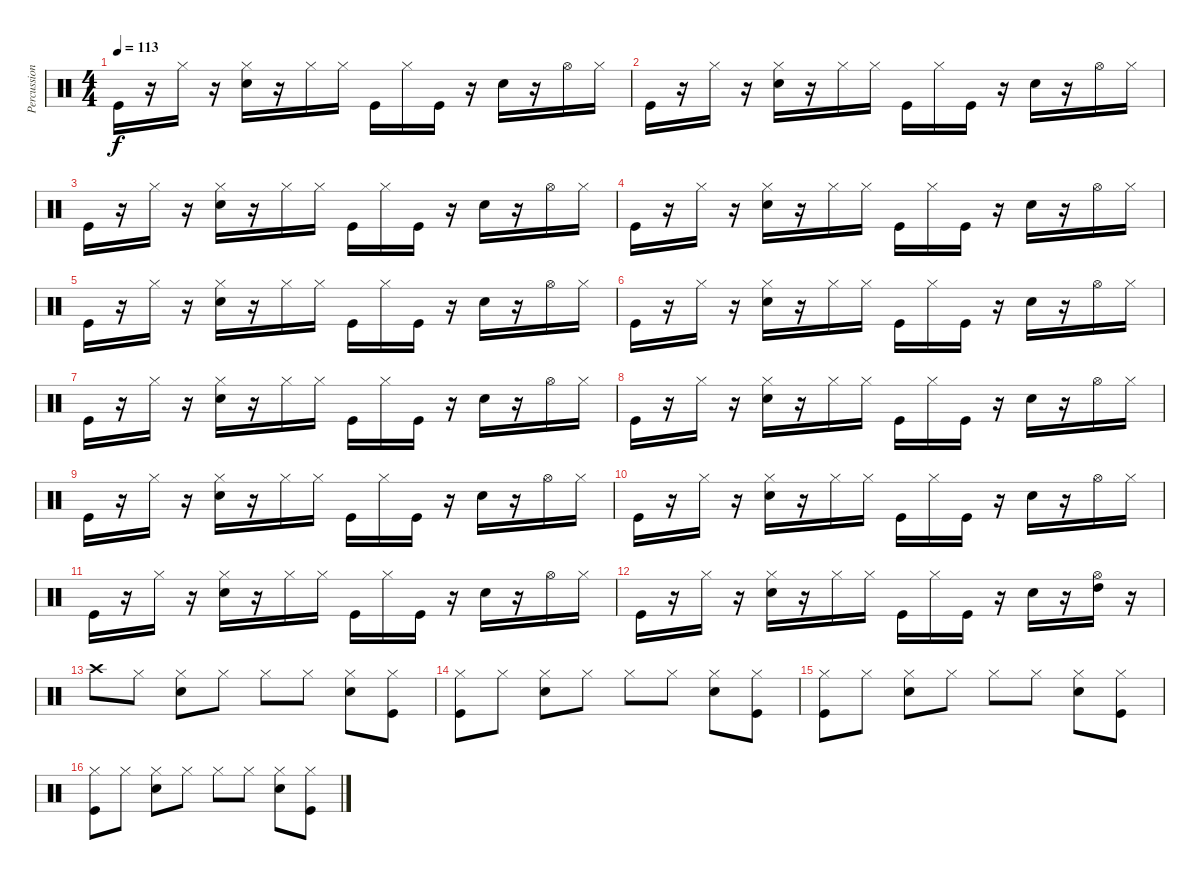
\track ("Percussioni" "Percussion") {instrument percussion}
\staff {score}
\articulation defaults
\ts (4 4)
\tempo 113
\clef neutral
\ks c "Kick (hit)".16{dy f}
r.16 "Hi-Hat (closed)".16 r.16 ("Hi-Hat (closed)" "Electric Snare (hit)").16 r.16 "Hi-Hat (closed)".16 "Hi-Hat (closed)".16 "Kick (hit)".16 "Hi-Hat (closed)".16 "Kick (hit)".16 r.16 "Electric Snare (hit)".16 r.16 "Hi-Hat (open)".16 "Hi-Hat (closed)".16 |
"Kick (hit)".16 r.16 "Hi-Hat (closed)".16 r.16 ("Hi-Hat (closed)" "Electric Snare (hit)").16 r.16 "Hi-Hat (closed)".16 "Hi-Hat (closed)".16 "Kick (hit)".16 "Hi-Hat (closed)".16 "Kick (hit)".16 r.16 "Electric Snare (hit)".16 r.16 "Hi-Hat (open)".16 "Hi-Hat (closed)".16 |
"Kick (hit)".16 r.16 "Hi-Hat (closed)".16 r.16 ("Hi-Hat (closed)" "Electric Snare (hit)").16 r.16 "Hi-Hat (closed)".16 "Hi-Hat (closed)".16 "Kick (hit)".16 "Hi-Hat (closed)".16 "Kick (hit)".16 r.16 "Electric Snare (hit)".16 r.16 "Hi-Hat (open)".16 "Hi-Hat (closed)".16 |
"Kick (hit)".16 r.16 "Hi-Hat (closed)".16 r.16 ("Hi-Hat (closed)" "Electric Snare (hit)").16 r.16 "Hi-Hat (closed)".16 "Hi-Hat (closed)".16 "Kick (hit)".16 "Hi-Hat (closed)".16 "Kick (hit)".16 r.16 "Electric Snare (hit)".16 r.16 "Hi-Hat (open)".16 "Hi-Hat (closed)".16 |
"Kick (hit)".16 r.16 "Hi-Hat (closed)".16 r.16 ("Hi-Hat (closed)" "Electric Snare (hit)").16 r.16 "Hi-Hat (closed)".16 "Hi-Hat (closed)".16 "Kick (hit)".16 "Hi-Hat (closed)".16 "Kick (hit)".16 r.16 "Electric Snare (hit)".16 r.16 "Hi-Hat (open)".16 "Hi-Hat (closed)".16 |
"Kick (hit)".16 r.16 "Hi-Hat (closed)".16 r.16 ("Hi-Hat (closed)" "Electric Snare (hit)").16 r.16 "Hi-Hat (closed)".16 "Hi-Hat (closed)".16 "Kick (hit)".16 "Hi-Hat (closed)".16 "Kick (hit)".16 r.16 "Electric Snare (hit)".16 r.16 "Hi-Hat (open)".16 "Hi-Hat (closed)".16 |
"Kick (hit)".16 r.16 "Hi-Hat (closed)".16 r.16 ("Hi-Hat (closed)" "Electric Snare (hit)").16 r.16 "Hi-Hat (closed)".16 "Hi-Hat (closed)".16 "Kick (hit)".16 "Hi-Hat (closed)".16 "Kick (hit)".16 r.16 "Electric Snare (hit)".16 r.16 "Hi-Hat (open)".16 "Hi-Hat (closed)".16 |
"Kick (hit)".16 r.16 "Hi-Hat (closed)".16 r.16 ("Hi-Hat (closed)" "Electric Snare (hit)").16 r.16 "Hi-Hat (closed)".16 "Hi-Hat (closed)".16 "Kick (hit)".16 "Hi-Hat (closed)".16 "Kick (hit)".16 r.16 "Electric Snare (hit)".16 r.16 "Hi-Hat (open)".16 "Hi-Hat (closed)".16 |
"Kick (hit)".16 r.16 "Hi-Hat (closed)".16 r.16 ("Hi-Hat (closed)" "Electric Snare (hit)").16 r.16 "Hi-Hat (closed)".16 "Hi-Hat (closed)".16 "Kick (hit)".16 "Hi-Hat (closed)".16 "Kick (hit)".16 r.16 "Electric Snare (hit)".16 r.16 "Hi-Hat (open)".16 "Hi-Hat (closed)".16 |
"Kick (hit)".16 r.16 "Hi-Hat (closed)".16 r.16 ("Hi-Hat (closed)" "Electric Snare (hit)").16 r.16 "Hi-Hat (closed)".16 "Hi-Hat (closed)".16 "Kick (hit)".16 "Hi-Hat (closed)".16 "Kick (hit)".16 r.16 "Electric Snare (hit)".16 r.16 "Hi-Hat (open)".16 "Hi-Hat (closed)".16 |
"Kick (hit)".16 r.16 "Hi-Hat (closed)".16 r.16 ("Hi-Hat (closed)" "Electric Snare (hit)").16 r.16 "Hi-Hat (closed)".16 "Hi-Hat (closed)".16 "Kick (hit)".16 "Hi-Hat (closed)".16 "Kick (hit)".16 r.16 "Electric Snare (hit)".16 r.16 "Hi-Hat (open)".16 "Hi-Hat (closed)".16 |
"Kick (hit)".16 r.16 "Hi-Hat (closed)".16 r.16 ("Hi-Hat (closed)" "Electric Snare (hit)").16 r.16 "Hi-Hat (closed)".16 "Hi-Hat (closed)".16 "Kick (hit)".16 "Hi-Hat (closed)".16 "Kick (hit)".16 r.16 "Electric Snare (hit)".16 r.16 ("Hi-Hat (open)" "High Tom (hit)").16 r.16 |
"Crash high (hit)".8 "Hi-Hat (closed)".8 ("Hi-Hat (closed)" "Electric Snare (hit)").8 "Hi-Hat (closed)".8 "Hi-Hat (closed)".8 "Hi-Hat (closed)".8 ("Hi-Hat (closed)" "Electric Snare (hit)").8 ("Hi-Hat (closed)" "Kick (hit)").8 |
("Hi-Hat (closed)" "Kick (hit)").8 "Hi-Hat (closed)".8 ("Hi-Hat (closed)" "Electric Snare (hit)").8 "Hi-Hat (closed)".8 "Hi-Hat (closed)".8 "Hi-Hat (closed)".8 ("Hi-Hat (closed)" "Electric Snare (hit)").8 ("Hi-Hat (closed)" "Kick (hit)").8 |
("Hi-Hat (closed)" "Kick (hit)").8 "Hi-Hat (closed)".8 ("Hi-Hat (closed)" "Electric Snare (hit)").8 "Hi-Hat (closed)".8 "Hi-Hat (closed)".8 "Hi-Hat (closed)".8 ("Hi-Hat (closed)" "Electric Snare (hit)").8 ("Hi-Hat (closed)" "Kick (hit)").8 |
("Hi-Hat (closed)" "Kick (hit)").8 "Hi-Hat (closed)".8 ("Hi-Hat (closed)" "Electric Snare (hit)").8 "Hi-Hat (closed)".8 "Hi-Hat (closed)".8 "Hi-Hat (closed)".8 ("Hi-Hat (closed)" "Electric Snare (hit)").8 ("Hi-Hat (closed)" "Kick (hit)").8
